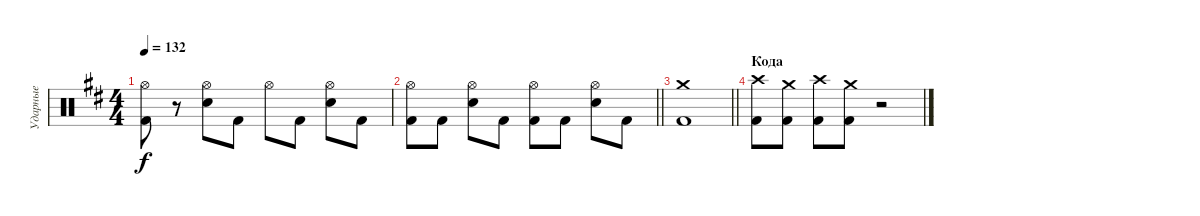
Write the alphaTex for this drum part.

\track ("Ударные" "Ударные") {instrument percussion}
\staff {score}
\articulation defaults
\ts (4 4)
\tempo 132
\clef neutral
\ks bminor
("Kick (hit) 2" "Hi-Hat (open)").8{dy f} r.8 ("Electric Snare (hit)" "Hi-Hat (open)").8 "Kick (hit) 2".8 "Hi-Hat (open)".8 "Kick (hit) 2".8 ("Electric Snare (hit)" "Hi-Hat (open)").8 "Kick (hit) 2".8 |
\barLineRight lightlight
("Kick (hit) 2" "Hi-Hat (open)").8 "Kick (hit) 2".8 ("Electric Snare (hit)" "Hi-Hat (open)").8 "Kick (hit) 2".8 ("Kick (hit) 2" "Hi-Hat (open)").8 "Kick (hit) 2".8 ("Electric Snare (hit)" "Hi-Hat (open)").8 "Kick (hit) 2".8 |
\section ("" "")
\barLineRight lightlight
("Crash medium (hit)" "Kick (hit) 2").1 |
\section ("" "Кода")
("Crash high (hit)" "Kick (hit) 2").8 ("Crash medium (hit)" "Kick (hit) 2").8 ("Crash high (hit)" "Kick (hit) 2").8 ("Crash medium (hit)" "Kick (hit) 2").8 r.2
